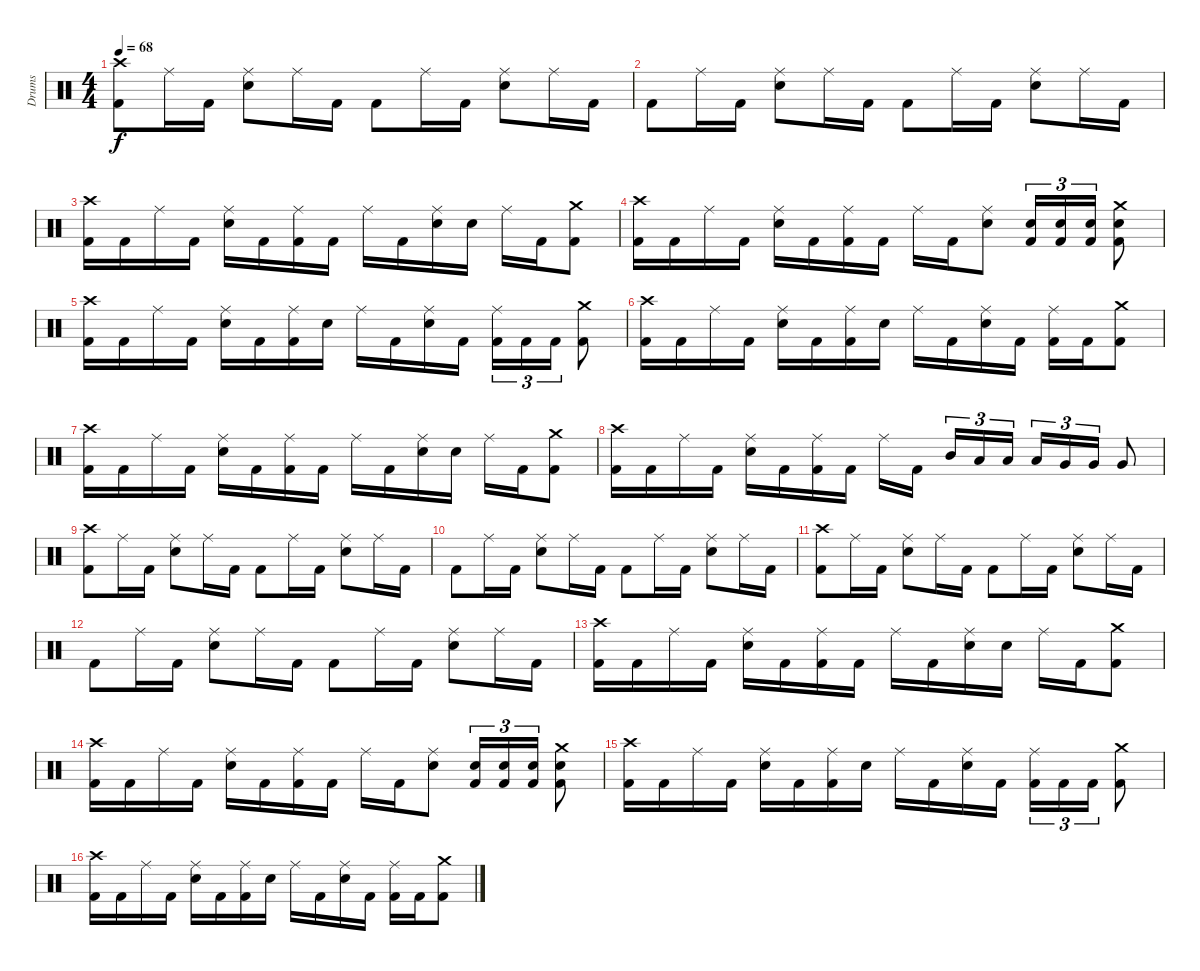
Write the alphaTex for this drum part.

\track ("Drums" "Drums") {instrument percussion}
\staff {score}
\articulation defaults
\ts (4 4)
\tempo 68
\clef neutral
\ks c
("Crash high (hit)" "Kick (hit) 2").8{dy f} "Ride (middle)".16 "Kick (hit) 2".16 ("Ride (middle)" "Electric Snare (hit)").8 "Ride (middle)".16 "Kick (hit) 2".16 "Kick (hit) 2".8 "Ride (middle)".16 "Kick (hit) 2".16 ("Ride (middle)" "Electric Snare (hit)").8 "Ride (middle)".16 "Kick (hit) 2".16 |
"Kick (hit) 2".8 "Ride (middle)".16 "Kick (hit) 2".16 ("Ride (middle)" "Electric Snare (hit)").8 "Ride (middle)".16 "Kick (hit) 2".16 "Kick (hit) 2".8 "Ride (middle)".16 "Kick (hit) 2".16 ("Ride (middle)" "Electric Snare (hit)").8 "Ride (middle)".16 "Kick (hit) 2".16 |
("Crash high (hit)" "Kick (hit) 2").16 "Kick (hit) 2".16 "Ride (middle)".16 "Kick (hit) 2".16 ("Ride (middle)" "Electric Snare (hit)").16 "Kick (hit) 2".16 ("Ride (middle)" "Kick (hit) 2").16 "Kick (hit) 2".16 "Ride (middle)".16 "Kick (hit) 2".16 ("Ride (middle)" "Electric Snare (hit)").16 "Electric Snare (hit)".16 "Ride (middle)".16 "Kick (hit) 2".16 ("Crash medium (hit)" "Kick (hit) 2").8 |
("Crash high (hit)" "Kick (hit) 2").16 "Kick (hit) 2".16 "Ride (middle)".16 "Kick (hit) 2".16 ("Ride (middle)" "Electric Snare (hit)").16 "Kick (hit) 2".16 ("Ride (middle)" "Kick (hit) 2").16 "Kick (hit) 2".16 "Ride (middle)".16 "Kick (hit) 2".16 ("Ride (middle)" "Electric Snare (hit)").8 ("Electric Snare (hit)" "Kick (hit) 2").16{tu (3 2)} ("Electric Snare (hit)" "Kick (hit) 2").16{tu (3 2)} ("Electric Snare (hit)" "Kick (hit) 2").16{tu (3 2)} ("Crash medium (hit)" "Electric Snare (hit)" "Kick (hit) 2").8 |
("Crash high (hit)" "Kick (hit) 2").16 "Kick (hit) 2".16 "Ride (middle)".16 "Kick (hit) 2".16 ("Ride (middle)" "Electric Snare (hit)").16 "Kick (hit) 2".16 ("Ride (middle)" "Kick (hit) 2").16 "Electric Snare (hit)".16 "Ride (middle)".16 "Kick (hit) 2".16 ("Ride (middle)" "Electric Snare (hit)").16 "Kick (hit) 2".16 ("Ride (middle)" "Kick (hit) 2").16{tu (3 2)} "Kick (hit) 2".16{tu (3 2)} "Kick (hit) 2".16{tu (3 2)} ("Crash medium (hit)" "Kick (hit) 2").8 |
("Crash high (hit)" "Kick (hit) 2").16 "Kick (hit) 2".16 "Ride (middle)".16 "Kick (hit) 2".16 ("Ride (middle)" "Electric Snare (hit)").16 "Kick (hit) 2".16 ("Ride (middle)" "Kick (hit) 2").16 "Electric Snare (hit)".16 "Ride (middle)".16 "Kick (hit) 2".16 ("Ride (middle)" "Electric Snare (hit)").16 "Kick (hit) 2".16 ("Ride (middle)" "Kick (hit) 2").16 "Kick (hit) 2".16 ("Crash medium (hit)" "Kick (hit) 2").8 |
("Crash high (hit)" "Kick (hit) 2").16 "Kick (hit) 2".16 "Ride (middle)".16 "Kick (hit) 2".16 ("Ride (middle)" "Electric Snare (hit)").16 "Kick (hit) 2".16 ("Ride (middle)" "Kick (hit) 2").16 "Kick (hit) 2".16 "Ride (middle)".16 "Kick (hit) 2".16 ("Ride (middle)" "Electric Snare (hit)").16 "Electric Snare (hit)".16 "Ride (middle)".16 "Kick (hit) 2".16 ("Crash medium (hit)" "Kick (hit) 2").8 |
("Crash high (hit)" "Kick (hit) 2").16 "Kick (hit) 2".16 "Ride (middle)".16 "Kick (hit) 2".16 ("Ride (middle)" "Electric Snare (hit)").16 "Kick (hit) 2".16 ("Ride (middle)" "Kick (hit) 2").16 "Kick (hit) 2".16 "Ride (middle)".16 "Kick (hit) 2".16{beam splitsecondary} "Mid Tom (hit)".16{tu (3 2)} "Low Tom (hit)".16{tu (3 2)} "Low Tom (hit)".16{tu (3 2)} "Low Tom (hit)".16{tu (3 2)} "Very Low Tom (hit)".16{tu (3 2)} "Very Low Tom (hit)".16{tu (3 2)} "Very Low Tom (hit)".8 |
("Crash high (hit)" "Kick (hit) 2").8 "Ride (middle)".16 "Kick (hit) 2".16 ("Ride (middle)" "Electric Snare (hit)").8 "Ride (middle)".16 "Kick (hit) 2".16 "Kick (hit) 2".8 "Ride (middle)".16 "Kick (hit) 2".16 ("Ride (middle)" "Electric Snare (hit)").8 "Ride (middle)".16 "Kick (hit) 2".16 |
"Kick (hit) 2".8 "Ride (middle)".16 "Kick (hit) 2".16 ("Ride (middle)" "Electric Snare (hit)").8 "Ride (middle)".16 "Kick (hit) 2".16 "Kick (hit) 2".8 "Ride (middle)".16 "Kick (hit) 2".16 ("Ride (middle)" "Electric Snare (hit)").8 "Ride (middle)".16 "Kick (hit) 2".16 |
("Crash high (hit)" "Kick (hit) 2").8 "Ride (middle)".16 "Kick (hit) 2".16 ("Ride (middle)" "Electric Snare (hit)").8 "Ride (middle)".16 "Kick (hit) 2".16 "Kick (hit) 2".8 "Ride (middle)".16 "Kick (hit) 2".16 ("Ride (middle)" "Electric Snare (hit)").8 "Ride (middle)".16 "Kick (hit) 2".16 |
"Kick (hit) 2".8 "Ride (middle)".16 "Kick (hit) 2".16 ("Ride (middle)" "Electric Snare (hit)").8 "Ride (middle)".16 "Kick (hit) 2".16 "Kick (hit) 2".8 "Ride (middle)".16 "Kick (hit) 2".16 ("Ride (middle)" "Electric Snare (hit)").8 "Ride (middle)".16 "Kick (hit) 2".16 |
("Crash high (hit)" "Kick (hit) 2").16 "Kick (hit) 2".16 "Ride (middle)".16 "Kick (hit) 2".16 ("Ride (middle)" "Electric Snare (hit)").16 "Kick (hit) 2".16 ("Ride (middle)" "Kick (hit) 2").16 "Kick (hit) 2".16 "Ride (middle)".16 "Kick (hit) 2".16 ("Ride (middle)" "Electric Snare (hit)").16 "Electric Snare (hit)".16 "Ride (middle)".16 "Kick (hit) 2".16 ("Crash medium (hit)" "Kick (hit) 2").8 |
("Crash high (hit)" "Kick (hit) 2").16 "Kick (hit) 2".16 "Ride (middle)".16 "Kick (hit) 2".16 ("Ride (middle)" "Electric Snare (hit)").16 "Kick (hit) 2".16 ("Ride (middle)" "Kick (hit) 2").16 "Kick (hit) 2".16 "Ride (middle)".16 "Kick (hit) 2".16 ("Ride (middle)" "Electric Snare (hit)").8 ("Electric Snare (hit)" "Kick (hit) 2").16{tu (3 2)} ("Electric Snare (hit)" "Kick (hit) 2").16{tu (3 2)} ("Electric Snare (hit)" "Kick (hit) 2").16{tu (3 2)} ("Crash medium (hit)" "Electric Snare (hit)" "Kick (hit) 2").8 |
("Crash high (hit)" "Kick (hit) 2").16 "Kick (hit) 2".16 "Ride (middle)".16 "Kick (hit) 2".16 ("Ride (middle)" "Electric Snare (hit)").16 "Kick (hit) 2".16 ("Ride (middle)" "Kick (hit) 2").16 "Electric Snare (hit)".16 "Ride (middle)".16 "Kick (hit) 2".16 ("Ride (middle)" "Electric Snare (hit)").16 "Kick (hit) 2".16 ("Ride (middle)" "Kick (hit) 2").16{tu (3 2)} "Kick (hit) 2".16{tu (3 2)} "Kick (hit) 2".16{tu (3 2)} ("Crash medium (hit)" "Kick (hit) 2").8 |
("Crash high (hit)" "Kick (hit) 2").16 "Kick (hit) 2".16 "Ride (middle)".16 "Kick (hit) 2".16 ("Ride (middle)" "Electric Snare (hit)").16 "Kick (hit) 2".16 ("Ride (middle)" "Kick (hit) 2").16 "Electric Snare (hit)".16 "Ride (middle)".16 "Kick (hit) 2".16 ("Ride (middle)" "Electric Snare (hit)").16 "Kick (hit) 2".16 ("Ride (middle)" "Kick (hit) 2").16 "Kick (hit) 2".16 ("Crash medium (hit)" "Kick (hit) 2").8
